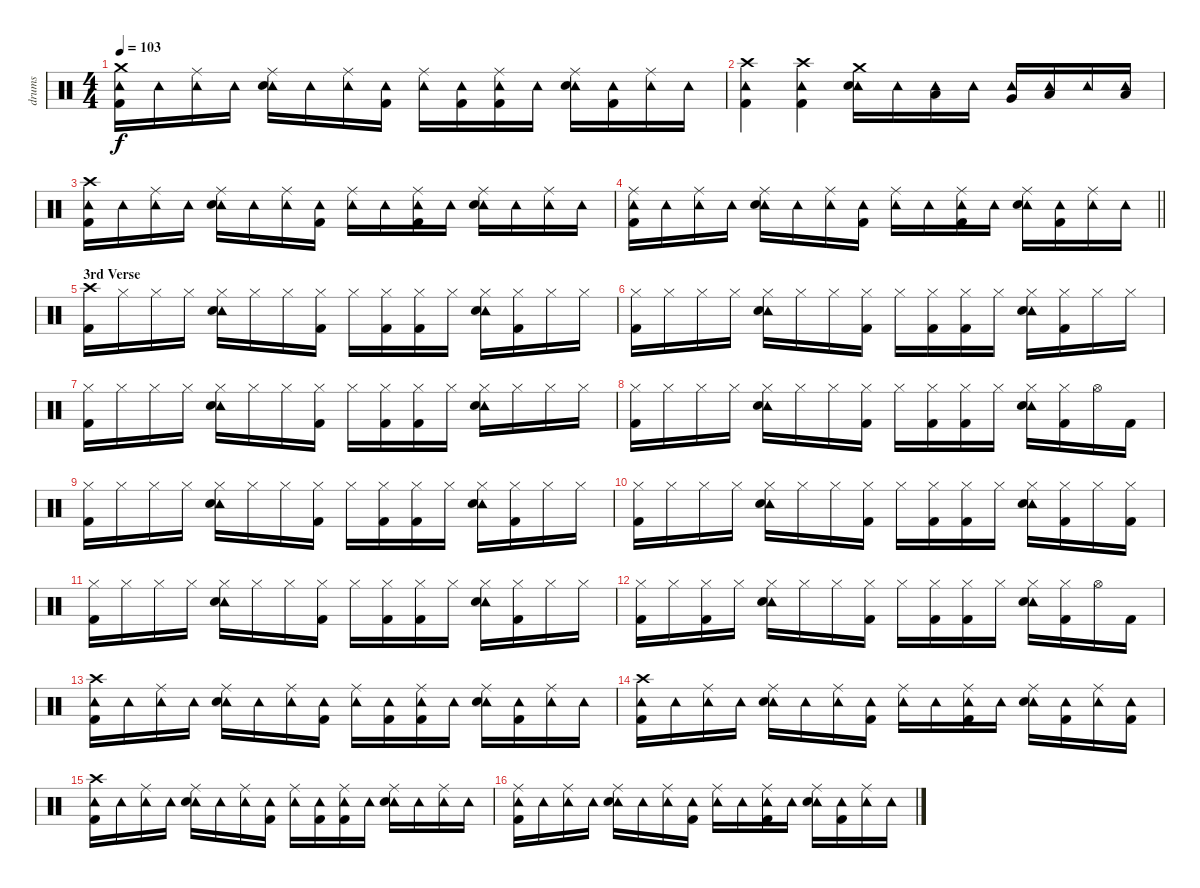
\track ("drums" "drums") {instrument percussion}
\staff {score}
\articulation defaults
\ts (4 4)
\tempo 103
\clef neutral
\ks c
("Crash medium (hit)" "Tambourine (hit)" "Kick (hit) 2").16{dy f} "Tambourine (hit)".16 ("Ride (middle)" "Tambourine (hit)").16 "Tambourine (hit)".16 ("Ride (middle)" "Tambourine (hit)" "Snare (hit) 2").16 "Tambourine (hit)".16 ("Ride (middle)" "Tambourine (hit)").16 ("Tambourine (hit)" "Kick (hit) 2").16 ("Ride (middle)" "Tambourine (hit)").16 ("Tambourine (hit)" "Kick (hit) 2").16 ("Ride (middle)" "Tambourine (hit)" "Kick (hit) 2").16 "Tambourine (hit)".16 ("Ride (middle)" "Tambourine (hit)" "Snare (hit) 2").16 ("Tambourine (hit)" "Kick (hit) 2").16 ("Ride (middle)" "Tambourine (hit)").16 "Tambourine (hit)".16 |
("Crash high (hit)" "Tambourine (hit)" "Kick (hit) 2").4 ("Crash high (hit)" "Tambourine (hit)" "Kick (hit) 2").4 ("Crash medium (hit)" "Tambourine (hit)" "Snare (hit) 2").16 "Tambourine (hit)".16 ("Tambourine (hit)" "Low Tom (hit)").16 "Tambourine (hit)".16 ("Tambourine (hit)" "Very Low Tom (hit)").16 ("Tambourine (hit)" "Low Floor Tom (hit)").16 "Tambourine (hit)".16 ("Tambourine (hit)" "Low Floor Tom (hit)").16 |
("Crash high (hit)" "Tambourine (hit)" "Kick (hit) 2").16 "Tambourine (hit)".16 ("Ride (middle)" "Tambourine (hit)").16 "Tambourine (hit)".16 ("Ride (middle)" "Tambourine (hit)" "Snare (hit) 2").16 "Tambourine (hit)".16 ("Ride (middle)" "Tambourine (hit)").16 ("Tambourine (hit)" "Kick (hit) 2").16 ("Ride (middle)" "Tambourine (hit)").16 "Tambourine (hit)".16 ("Ride (middle)" "Tambourine (hit)" "Kick (hit) 2").16 "Tambourine (hit)".16 ("Ride (middle)" "Tambourine (hit)" "Snare (hit) 2").16 "Tambourine (hit)".16 ("Ride (middle)" "Tambourine (hit)").16 "Tambourine (hit)".16 |
\barLineRight lightlight
("Ride (middle)" "Tambourine (hit)" "Kick (hit) 2").16 "Tambourine (hit)".16 ("Ride (middle)" "Tambourine (hit)").16 "Tambourine (hit)".16 ("Ride (middle)" "Tambourine (hit)" "Snare (hit) 2").16 "Tambourine (hit)".16 ("Ride (middle)" "Tambourine (hit)").16 ("Tambourine (hit)" "Kick (hit) 2").16 ("Ride (middle)" "Tambourine (hit)").16 "Tambourine (hit)".16 ("Ride (middle)" "Tambourine (hit)" "Kick (hit) 2").16 "Tambourine (hit)".16 ("Ride (middle)" "Tambourine (hit)" "Snare (hit) 2").16 ("Tambourine (hit)" "Kick (hit) 2").16 ("Ride (middle)" "Tambourine (hit)").16 "Tambourine (hit)".16 |
\section ("" "3rd Verse")
("Crash high (hit)" "Kick (hit) 2").16 "Hi-Hat (closed)".16 "Hi-Hat (closed)".16 "Hi-Hat (closed)".16 ("Tambourine (hit)" "Snare (hit) 2" "Hi-Hat (closed)").16 "Hi-Hat (closed)".16 "Hi-Hat (closed)".16 ("Hi-Hat (closed)" "Kick (hit) 2").16 "Hi-Hat (closed)".16 ("Hi-Hat (closed)" "Kick (hit) 2").16 ("Hi-Hat (closed)" "Kick (hit) 2").16 "Hi-Hat (closed)".16 ("Tambourine (hit)" "Snare (hit) 2" "Hi-Hat (closed)").16 ("Hi-Hat (closed)" "Kick (hit) 2").16 "Hi-Hat (closed)".16 "Hi-Hat (closed)".16 |
("Hi-Hat (closed)" "Kick (hit) 2").16 "Hi-Hat (closed)".16 "Hi-Hat (closed)".16 "Hi-Hat (closed)".16 ("Tambourine (hit)" "Snare (hit) 2" "Hi-Hat (closed)").16 "Hi-Hat (closed)".16 "Hi-Hat (closed)".16 ("Hi-Hat (closed)" "Kick (hit) 2").16 "Hi-Hat (closed)".16 ("Hi-Hat (closed)" "Kick (hit) 2").16 ("Hi-Hat (closed)" "Kick (hit) 2").16 "Hi-Hat (closed)".16 ("Tambourine (hit)" "Snare (hit) 2" "Hi-Hat (closed)").16 ("Hi-Hat (closed)" "Kick (hit) 2").16 "Hi-Hat (closed)".16 "Hi-Hat (closed)".16 |
("Hi-Hat (closed)" "Kick (hit) 2").16 "Hi-Hat (closed)".16 "Hi-Hat (closed)".16 "Hi-Hat (closed)".16 ("Tambourine (hit)" "Snare (hit) 2" "Hi-Hat (closed)").16 "Hi-Hat (closed)".16 "Hi-Hat (closed)".16 ("Hi-Hat (closed)" "Kick (hit) 2").16 "Hi-Hat (closed)".16 ("Hi-Hat (closed)" "Kick (hit) 2").16 ("Hi-Hat (closed)" "Kick (hit) 2").16 "Hi-Hat (closed)".16 ("Tambourine (hit)" "Snare (hit) 2" "Hi-Hat (closed)").16 "Hi-Hat (closed)".16 "Hi-Hat (closed)".16 "Hi-Hat (closed)".16 |
("Hi-Hat (closed)" "Kick (hit) 2").16 "Hi-Hat (closed)".16 "Hi-Hat (closed)".16 "Hi-Hat (closed)".16 ("Tambourine (hit)" "Snare (hit) 2" "Hi-Hat (closed)").16 "Hi-Hat (closed)".16 "Hi-Hat (closed)".16 ("Hi-Hat (closed)" "Kick (hit) 2").16 "Hi-Hat (closed)".16 ("Hi-Hat (closed)" "Kick (hit) 2").16 ("Hi-Hat (closed)" "Kick (hit) 2").16 "Hi-Hat (closed)".16 ("Tambourine (hit)" "Snare (hit) 2" "Hi-Hat (closed)").16 ("Hi-Hat (closed)" "Kick (hit) 2").16 "Hi-Hat (open)".16 "Kick (hit) 2".16 |
("Hi-Hat (closed)" "Kick (hit) 2").16 "Hi-Hat (closed)".16 "Hi-Hat (closed)".16 "Hi-Hat (closed)".16 ("Tambourine (hit)" "Snare (hit) 2" "Hi-Hat (closed)").16 "Hi-Hat (closed)".16 "Hi-Hat (closed)".16 ("Hi-Hat (closed)" "Kick (hit) 2").16 "Hi-Hat (closed)".16 ("Hi-Hat (closed)" "Kick (hit) 2").16 ("Hi-Hat (closed)" "Kick (hit) 2").16 "Hi-Hat (closed)".16 ("Tambourine (hit)" "Snare (hit) 2" "Hi-Hat (closed)").16 ("Hi-Hat (closed)" "Kick (hit) 2").16 "Hi-Hat (closed)".16 "Hi-Hat (closed)".16 |
("Hi-Hat (closed)" "Kick (hit) 2").16 "Hi-Hat (closed)".16 "Hi-Hat (closed)".16 "Hi-Hat (closed)".16 ("Tambourine (hit)" "Snare (hit) 2" "Hi-Hat (closed)").16 "Hi-Hat (closed)".16 "Hi-Hat (closed)".16 ("Hi-Hat (closed)" "Kick (hit) 2").16 "Hi-Hat (closed)".16 ("Hi-Hat (closed)" "Kick (hit) 2").16 ("Hi-Hat (closed)" "Kick (hit) 2").16 "Hi-Hat (closed)".16 ("Tambourine (hit)" "Snare (hit) 2" "Hi-Hat (closed)").16 ("Hi-Hat (closed)" "Kick (hit) 2").16 "Hi-Hat (closed)".16 ("Hi-Hat (closed)" "Kick (hit) 2").16 |
("Hi-Hat (closed)" "Kick (hit) 2").16 "Hi-Hat (closed)".16 "Hi-Hat (closed)".16 "Hi-Hat (closed)".16 ("Tambourine (hit)" "Snare (hit) 2" "Hi-Hat (closed)").16 "Hi-Hat (closed)".16 "Hi-Hat (closed)".16 ("Hi-Hat (closed)" "Kick (hit) 2").16 "Hi-Hat (closed)".16 ("Hi-Hat (closed)" "Kick (hit) 2").16 ("Hi-Hat (closed)" "Kick (hit) 2").16 "Hi-Hat (closed)".16 ("Tambourine (hit)" "Snare (hit) 2" "Hi-Hat (closed)").16 ("Hi-Hat (closed)" "Kick (hit) 2").16 "Hi-Hat (closed)".16 "Hi-Hat (closed)".16 |
("Hi-Hat (closed)" "Kick (hit) 2").16 "Hi-Hat (closed)".16 ("Hi-Hat (closed)" "Kick (hit) 2").16 "Hi-Hat (closed)".16 ("Tambourine (hit)" "Snare (hit) 2" "Hi-Hat (closed)").16 "Hi-Hat (closed)".16 "Hi-Hat (closed)".16 ("Hi-Hat (closed)" "Kick (hit) 2").16 "Hi-Hat (closed)".16 ("Hi-Hat (closed)" "Kick (hit) 2").16 ("Hi-Hat (closed)" "Kick (hit) 2").16 "Hi-Hat (closed)".16 ("Tambourine (hit)" "Snare (hit) 2" "Hi-Hat (closed)").16 ("Hi-Hat (closed)" "Kick (hit) 2").16 "Hi-Hat (open)".16 "Kick (hit) 2".16 |
("Crash high (hit)" "Tambourine (hit)" "Kick (hit) 2").16 "Tambourine (hit)".16 ("Ride (middle)" "Tambourine (hit)").16 "Tambourine (hit)".16 ("Ride (middle)" "Tambourine (hit)" "Snare (hit) 2").16 "Tambourine (hit)".16 ("Ride (middle)" "Tambourine (hit)").16 ("Tambourine (hit)" "Kick (hit) 2").16 ("Ride (middle)" "Tambourine (hit)").16 ("Tambourine (hit)" "Kick (hit) 2").16 ("Ride (middle)" "Tambourine (hit)" "Kick (hit) 2").16 "Tambourine (hit)".16 ("Ride (middle)" "Tambourine (hit)" "Snare (hit) 2").16 ("Tambourine (hit)" "Kick (hit) 2").16 ("Ride (middle)" "Tambourine (hit)").16 "Tambourine (hit)".16 |
("Crash high (hit)" "Tambourine (hit)" "Kick (hit) 2").16 "Tambourine (hit)".16 ("Ride (middle)" "Tambourine (hit)").16 "Tambourine (hit)".16 ("Ride (middle)" "Tambourine (hit)" "Snare (hit) 2").16 "Tambourine (hit)".16 ("Ride (middle)" "Tambourine (hit)").16 ("Tambourine (hit)" "Kick (hit) 2").16 ("Ride (middle)" "Tambourine (hit)").16 "Tambourine (hit)".16 ("Ride (middle)" "Tambourine (hit)" "Kick (hit) 2").16 "Tambourine (hit)".16 ("Ride (middle)" "Tambourine (hit)" "Snare (hit) 2").16 ("Tambourine (hit)" "Kick (hit) 2").16 ("Ride (middle)" "Tambourine (hit)").16 ("Tambourine (hit)" "Kick (hit) 2").16 |
("Crash high (hit)" "Tambourine (hit)" "Kick (hit) 2").16 "Tambourine (hit)".16 ("Ride (middle)" "Tambourine (hit)").16 "Tambourine (hit)".16 ("Ride (middle)" "Tambourine (hit)" "Snare (hit) 2").16 "Tambourine (hit)".16 ("Ride (middle)" "Tambourine (hit)").16 ("Tambourine (hit)" "Kick (hit) 2").16 ("Ride (middle)" "Tambourine (hit)").16 ("Tambourine (hit)" "Kick (hit) 2").16 ("Ride (middle)" "Tambourine (hit)" "Kick (hit) 2").16 "Tambourine (hit)".16 ("Ride (middle)" "Tambourine (hit)" "Snare (hit) 2").16 "Tambourine (hit)".16 ("Ride (middle)" "Tambourine (hit)").16 "Tambourine (hit)".16 |
("Ride (middle)" "Tambourine (hit)" "Kick (hit) 2").16 "Tambourine (hit)".16 ("Ride (middle)" "Tambourine (hit)").16 "Tambourine (hit)".16 ("Ride (middle)" "Tambourine (hit)" "Snare (hit) 2").16 "Tambourine (hit)".16 ("Ride (middle)" "Tambourine (hit)").16 ("Tambourine (hit)" "Kick (hit) 2").16 ("Ride (middle)" "Tambourine (hit)").16 "Tambourine (hit)".16 ("Ride (middle)" "Tambourine (hit)" "Kick (hit) 2").16 "Tambourine (hit)".16 ("Ride (middle)" "Tambourine (hit)" "Snare (hit) 2").16 ("Tambourine (hit)" "Kick (hit) 2").16 ("Ride (middle)" "Tambourine (hit)").16 "Tambourine (hit)".16
